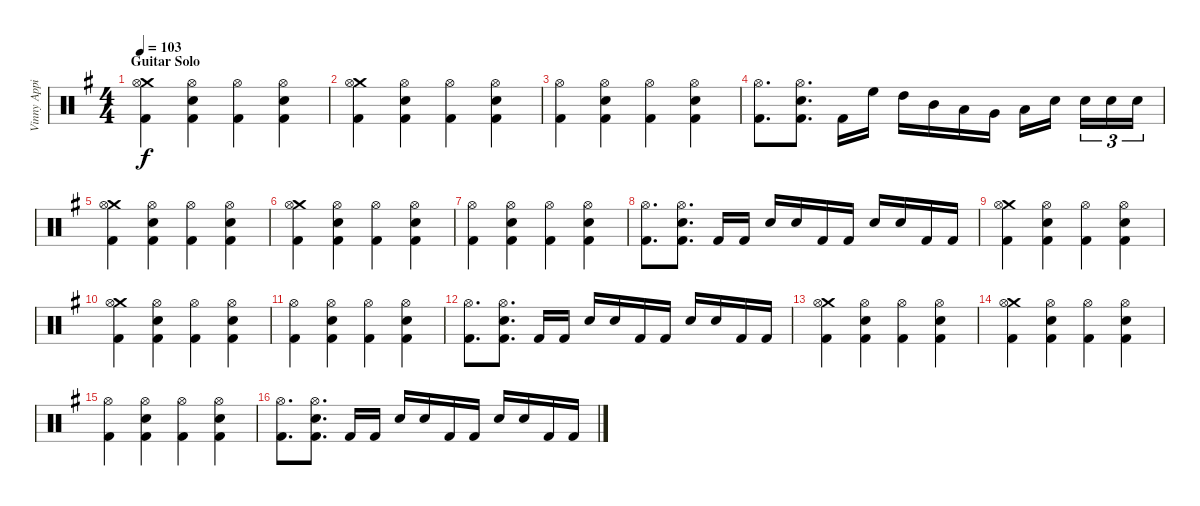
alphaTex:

\track ("Vinny Appice" "Vinny Appi") {instrument percussion}
\staff {score}
\articulation defaults
\ts (4 4)
\section ("" "Guitar Solo")
\tempo 103
\clef neutral
\ks g
("Crash medium (hit)" "Hi-Hat (open)" "Kick (hit) 2").4{dy f} ("Hi-Hat (open)" "Snare (hit) 2" "Kick (hit) 2").4 ("Hi-Hat (open)" "Kick (hit) 2").4 ("Hi-Hat (open)" "Snare (hit) 2" "Kick (hit) 2").4 |
("Crash medium (hit)" "Hi-Hat (open)" "Kick (hit) 2").4 ("Hi-Hat (open)" "Snare (hit) 2" "Kick (hit) 2").4 ("Hi-Hat (open)" "Kick (hit) 2").4 ("Hi-Hat (open)" "Snare (hit) 2" "Kick (hit) 2").4 |
("Hi-Hat (open)" "Kick (hit) 2").4 ("Hi-Hat (open)" "Snare (hit) 2" "Kick (hit) 2").4 ("Hi-Hat (open)" "Kick (hit) 2").4 ("Hi-Hat (open)" "Snare (hit) 2" "Kick (hit) 2").4 |
("Hi-Hat (open)" "Kick (hit) 2").8{d} ("Hi-Hat (open)" "Snare (hit) 2" "Kick (hit) 2").8{d} "Kick (hit) 2".16 "High Floor Tom (hit)".16 "High Tom (hit)".16 "Mid Tom (hit)".16 "Low Tom (hit)".16 "Very Low Tom (hit)".16 "Low Floor Tom (hit)".16 "Electric Snare (hit)".16{beam splitsecondary} "Snare (hit) 2".16{tu (3 2)} "Snare (hit) 2".16{tu (3 2)} "Snare (hit) 2".16{tu (3 2)} |
("Crash medium (hit)" "Hi-Hat (open)" "Kick (hit) 2").4 ("Hi-Hat (open)" "Snare (hit) 2" "Kick (hit) 2").4 ("Hi-Hat (open)" "Kick (hit) 2").4 ("Hi-Hat (open)" "Snare (hit) 2" "Kick (hit) 2").4 |
("Crash medium (hit)" "Hi-Hat (open)" "Kick (hit) 2").4 ("Hi-Hat (open)" "Snare (hit) 2" "Kick (hit) 2").4 ("Hi-Hat (open)" "Kick (hit) 2").4 ("Hi-Hat (open)" "Snare (hit) 2" "Kick (hit) 2").4 |
("Hi-Hat (open)" "Kick (hit) 2").4 ("Hi-Hat (open)" "Snare (hit) 2" "Kick (hit) 2").4 ("Hi-Hat (open)" "Kick (hit) 2").4 ("Hi-Hat (open)" "Snare (hit) 2" "Kick (hit) 2").4 |
("Hi-Hat (open)" "Kick (hit) 2").8{d} ("Hi-Hat (open)" "Snare (hit) 2" "Kick (hit) 2").8{d} "Kick (hit) 2".16 "Kick (hit) 2".16 "Snare (hit) 2".16 "Snare (hit) 2".16 "Kick (hit) 2".16 "Kick (hit) 2".16 "Snare (hit) 2".16 "Snare (hit) 2".16 "Kick (hit) 2".16 "Kick (hit) 2".16 |
("Crash medium (hit)" "Hi-Hat (open)" "Kick (hit) 2").4 ("Hi-Hat (open)" "Snare (hit) 2" "Kick (hit) 2").4 ("Hi-Hat (open)" "Kick (hit) 2").4 ("Hi-Hat (open)" "Snare (hit) 2" "Kick (hit) 2").4 |
("Crash medium (hit)" "Hi-Hat (open)" "Kick (hit) 2").4 ("Hi-Hat (open)" "Snare (hit) 2" "Kick (hit) 2").4 ("Hi-Hat (open)" "Kick (hit) 2").4 ("Hi-Hat (open)" "Snare (hit) 2" "Kick (hit) 2").4 |
("Hi-Hat (open)" "Kick (hit) 2").4 ("Hi-Hat (open)" "Snare (hit) 2" "Kick (hit) 2").4 ("Hi-Hat (open)" "Kick (hit) 2").4 ("Hi-Hat (open)" "Snare (hit) 2" "Kick (hit) 2").4 |
("Hi-Hat (open)" "Kick (hit) 2").8{d} ("Hi-Hat (open)" "Snare (hit) 2" "Kick (hit) 2").8{d} "Kick (hit) 2".16 "Kick (hit) 2".16 "Snare (hit) 2".16 "Snare (hit) 2".16 "Kick (hit) 2".16 "Kick (hit) 2".16 "Snare (hit) 2".16 "Snare (hit) 2".16 "Kick (hit) 2".16 "Kick (hit) 2".16 |
("Crash medium (hit)" "Hi-Hat (open)" "Kick (hit) 2").4 ("Hi-Hat (open)" "Snare (hit) 2" "Kick (hit) 2").4 ("Hi-Hat (open)" "Kick (hit) 2").4 ("Hi-Hat (open)" "Snare (hit) 2" "Kick (hit) 2").4 |
("Crash medium (hit)" "Hi-Hat (open)" "Kick (hit) 2").4 ("Hi-Hat (open)" "Snare (hit) 2" "Kick (hit) 2").4 ("Hi-Hat (open)" "Kick (hit) 2").4 ("Hi-Hat (open)" "Snare (hit) 2" "Kick (hit) 2").4 |
("Hi-Hat (open)" "Kick (hit) 2").4 ("Hi-Hat (open)" "Snare (hit) 2" "Kick (hit) 2").4 ("Hi-Hat (open)" "Kick (hit) 2").4 ("Hi-Hat (open)" "Snare (hit) 2" "Kick (hit) 2").4 |
("Hi-Hat (open)" "Kick (hit) 2").8{d} ("Hi-Hat (open)" "Snare (hit) 2" "Kick (hit) 2").8{d} "Kick (hit) 2".16 "Kick (hit) 2".16 "Snare (hit) 2".16 "Snare (hit) 2".16 "Kick (hit) 2".16 "Kick (hit) 2".16 "Snare (hit) 2".16 "Snare (hit) 2".16 "Kick (hit) 2".16 "Kick (hit) 2".16
